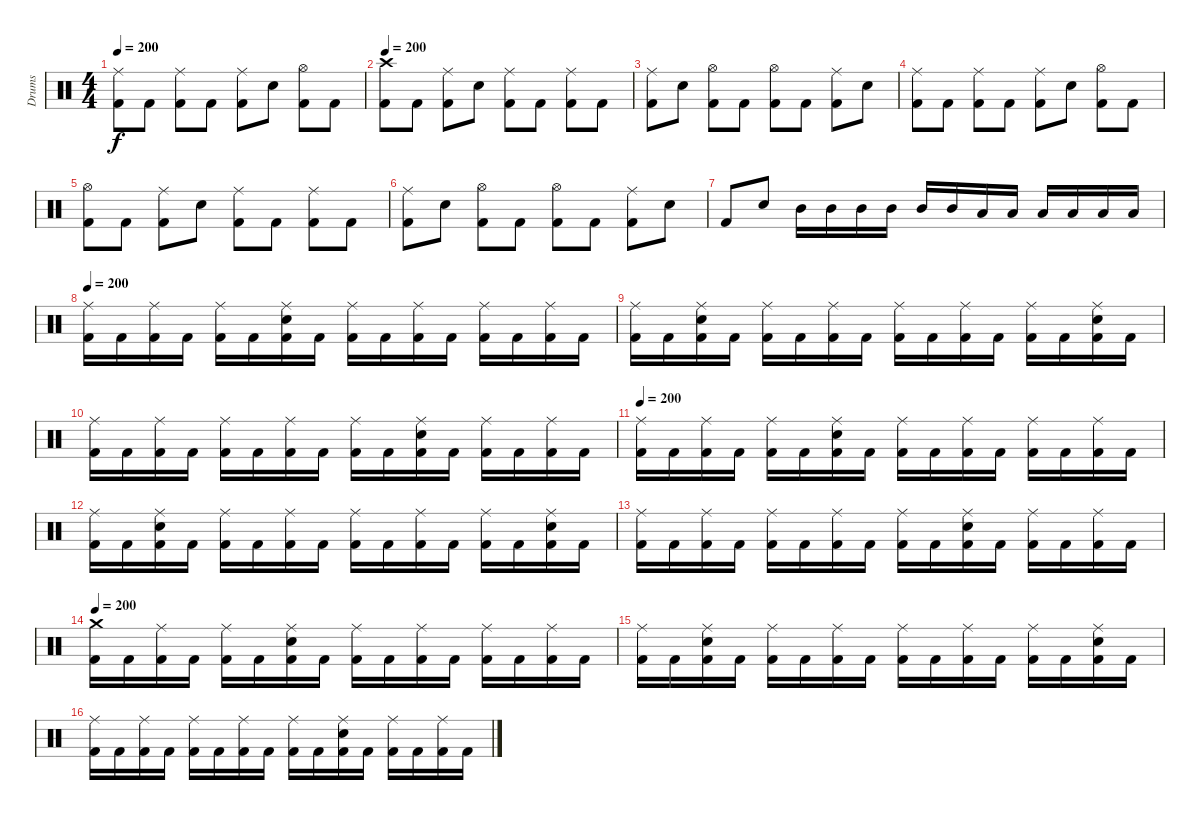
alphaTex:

\track ("Drums" "Drums") {instrument percussion}
\staff {score}
\articulation defaults
\ts (4 4)
\tempo 200
\clef neutral
\ks c
("Ride (middle)" "Kick (hit) 2").8{dy f} "Kick (hit) 2".8 ("Ride (middle)" "Kick (hit) 2").8 "Kick (hit) 2".8 ("Ride (middle)" "Kick (hit) 2").8 "Electric Snare (hit)".8 ("Hi-Hat (open)" "Kick (hit) 2").8 "Kick (hit) 2".8 |
\tempo 200
("Crash high (hit)" "Kick (hit) 2").8 "Kick (hit) 2".8 ("Ride (middle)" "Kick (hit) 2").8 "Electric Snare (hit)".8 ("Ride (middle)" "Kick (hit) 2").8 "Kick (hit) 2".8 ("Ride (middle)" "Kick (hit) 2").8 "Kick (hit) 2".8 |
("Ride (middle)" "Kick (hit) 2").8 "Electric Snare (hit)".8 ("Hi-Hat (open)" "Kick (hit) 2").8 "Kick (hit) 2".8 ("Hi-Hat (open)" "Kick (hit) 2").8 "Kick (hit) 2".8 ("Ride (middle)" "Kick (hit) 2").8 "Electric Snare (hit)".8 |
("Ride (middle)" "Kick (hit) 2").8 "Kick (hit) 2".8 ("Ride (middle)" "Kick (hit) 2").8 "Kick (hit) 2".8 ("Ride (middle)" "Kick (hit) 2").8 "Electric Snare (hit)".8 ("Hi-Hat (open)" "Kick (hit) 2").8 "Kick (hit) 2".8 |
("Hi-Hat (open)" "Kick (hit) 2").8 "Kick (hit) 2".8 ("Ride (middle)" "Kick (hit) 2").8 "Electric Snare (hit)".8 ("Ride (middle)" "Kick (hit) 2").8 "Kick (hit) 2".8 ("Ride (middle)" "Kick (hit) 2").8 "Kick (hit) 2".8 |
("Ride (middle)" "Kick (hit) 2").8 "Electric Snare (hit)".8 ("Hi-Hat (open)" "Kick (hit) 2").8 "Kick (hit) 2".8 ("Hi-Hat (open)" "Kick (hit) 2").8 "Kick (hit) 2".8 ("Ride (middle)" "Kick (hit) 2").8 "Electric Snare (hit)".8 |
"Kick (hit) 2".8 "Electric Snare (hit)".8 "Mid Tom (hit)".16 "Mid Tom (hit)".16 "Mid Tom (hit)".16 "Mid Tom (hit)".16 "Mid Tom (hit)".16 "Mid Tom (hit)".16 "Low Tom (hit)".16 "Low Tom (hit)".16 "Low Tom (hit)".16 "Low Tom (hit)".16 "Low Tom (hit)".16 "Low Tom (hit)".16 |
\tempo 200
("Ride (middle)" "Kick (hit) 2").16 "Kick (hit) 2".16 ("Ride (middle)" "Kick (hit) 2").16 "Kick (hit) 2".16 ("Ride (middle)" "Kick (hit) 2").16 "Kick (hit) 2".16 ("Ride (middle)" "Electric Snare (hit)" "Kick (hit) 2").16 "Kick (hit) 2".16 ("Ride (middle)" "Kick (hit) 2").16 "Kick (hit) 2".16 ("Ride (middle)" "Kick (hit) 2").16 "Kick (hit) 2".16 ("Ride (middle)" "Kick (hit) 2").16 "Kick (hit) 2".16 ("Ride (middle)" "Kick (hit) 2").16 "Kick (hit) 2".16 |
("Ride (middle)" "Kick (hit) 2").16 "Kick (hit) 2".16 ("Ride (middle)" "Electric Snare (hit)" "Kick (hit) 2").16 "Kick (hit) 2".16 ("Ride (middle)" "Kick (hit) 2").16 "Kick (hit) 2".16 ("Ride (middle)" "Kick (hit) 2").16 "Kick (hit) 2".16 ("Ride (middle)" "Kick (hit) 2").16 "Kick (hit) 2".16 ("Ride (middle)" "Kick (hit) 2").16 "Kick (hit) 2".16 ("Ride (middle)" "Kick (hit) 2").16 "Kick (hit) 2".16 ("Ride (middle)" "Electric Snare (hit)" "Kick (hit) 2").16 "Kick (hit) 2".16 |
("Ride (middle)" "Kick (hit) 2").16 "Kick (hit) 2".16 ("Ride (middle)" "Kick (hit) 2").16 "Kick (hit) 2".16 ("Ride (middle)" "Kick (hit) 2").16 "Kick (hit) 2".16 ("Ride (middle)" "Kick (hit) 2").16 "Kick (hit) 2".16 ("Ride (middle)" "Kick (hit) 2").16 "Kick (hit) 2".16 ("Ride (middle)" "Electric Snare (hit)" "Kick (hit) 2").16 "Kick (hit) 2".16 ("Ride (middle)" "Kick (hit) 2").16 "Kick (hit) 2".16 ("Ride (middle)" "Kick (hit) 2").16 "Kick (hit) 2".16 |
\tempo 200
("Ride (middle)" "Kick (hit) 2").16 "Kick (hit) 2".16 ("Ride (middle)" "Kick (hit) 2").16 "Kick (hit) 2".16 ("Ride (middle)" "Kick (hit) 2").16 "Kick (hit) 2".16 ("Ride (middle)" "Electric Snare (hit)" "Kick (hit) 2").16 "Kick (hit) 2".16 ("Ride (middle)" "Kick (hit) 2").16 "Kick (hit) 2".16 ("Ride (middle)" "Kick (hit) 2").16 "Kick (hit) 2".16 ("Ride (middle)" "Kick (hit) 2").16 "Kick (hit) 2".16 ("Ride (middle)" "Kick (hit) 2").16 "Kick (hit) 2".16 |
("Ride (middle)" "Kick (hit) 2").16 "Kick (hit) 2".16 ("Ride (middle)" "Electric Snare (hit)" "Kick (hit) 2").16 "Kick (hit) 2".16 ("Ride (middle)" "Kick (hit) 2").16 "Kick (hit) 2".16 ("Ride (middle)" "Kick (hit) 2").16 "Kick (hit) 2".16 ("Ride (middle)" "Kick (hit) 2").16 "Kick (hit) 2".16 ("Ride (middle)" "Kick (hit) 2").16 "Kick (hit) 2".16 ("Ride (middle)" "Kick (hit) 2").16 "Kick (hit) 2".16 ("Ride (middle)" "Electric Snare (hit)" "Kick (hit) 2").16 "Kick (hit) 2".16 |
("Ride (middle)" "Kick (hit) 2").16 "Kick (hit) 2".16 ("Ride (middle)" "Kick (hit) 2").16 "Kick (hit) 2".16 ("Ride (middle)" "Kick (hit) 2").16 "Kick (hit) 2".16 ("Ride (middle)" "Kick (hit) 2").16 "Kick (hit) 2".16 ("Ride (middle)" "Kick (hit) 2").16 "Kick (hit) 2".16 ("Ride (middle)" "Electric Snare (hit)" "Kick (hit) 2").16 "Kick (hit) 2".16 ("Ride (middle)" "Kick (hit) 2").16 "Kick (hit) 2".16 ("Ride (middle)" "Kick (hit) 2").16 "Kick (hit) 2".16 |
\tempo 200
("Crash medium (hit)" "Kick (hit) 2").16 "Kick (hit) 2".16 ("Ride (middle)" "Kick (hit) 2").16 "Kick (hit) 2".16 ("Ride (middle)" "Kick (hit) 2").16 "Kick (hit) 2".16 ("Ride (middle)" "Electric Snare (hit)" "Kick (hit) 2").16 "Kick (hit) 2".16 ("Ride (middle)" "Kick (hit) 2").16 "Kick (hit) 2".16 ("Ride (middle)" "Kick (hit) 2").16 "Kick (hit) 2".16 ("Ride (middle)" "Kick (hit) 2").16 "Kick (hit) 2".16 ("Ride (middle)" "Kick (hit) 2").16 "Kick (hit) 2".16 |
("Ride (middle)" "Kick (hit) 2").16 "Kick (hit) 2".16 ("Ride (middle)" "Electric Snare (hit)" "Kick (hit) 2").16 "Kick (hit) 2".16 ("Ride (middle)" "Kick (hit) 2").16 "Kick (hit) 2".16 ("Ride (middle)" "Kick (hit) 2").16 "Kick (hit) 2".16 ("Ride (middle)" "Kick (hit) 2").16 "Kick (hit) 2".16 ("Ride (middle)" "Kick (hit) 2").16 "Kick (hit) 2".16 ("Ride (middle)" "Kick (hit) 2").16 "Kick (hit) 2".16 ("Ride (middle)" "Electric Snare (hit)" "Kick (hit) 2").16 "Kick (hit) 2".16 |
("Ride (middle)" "Kick (hit) 2").16 "Kick (hit) 2".16 ("Ride (middle)" "Kick (hit) 2").16 "Kick (hit) 2".16 ("Ride (middle)" "Kick (hit) 2").16 "Kick (hit) 2".16 ("Ride (middle)" "Kick (hit) 2").16 "Kick (hit) 2".16 ("Ride (middle)" "Kick (hit) 2").16 "Kick (hit) 2".16 ("Ride (middle)" "Electric Snare (hit)" "Kick (hit) 2").16 "Kick (hit) 2".16 ("Ride (middle)" "Kick (hit) 2").16 "Kick (hit) 2".16 ("Ride (middle)" "Kick (hit) 2").16 "Kick (hit) 2".16
